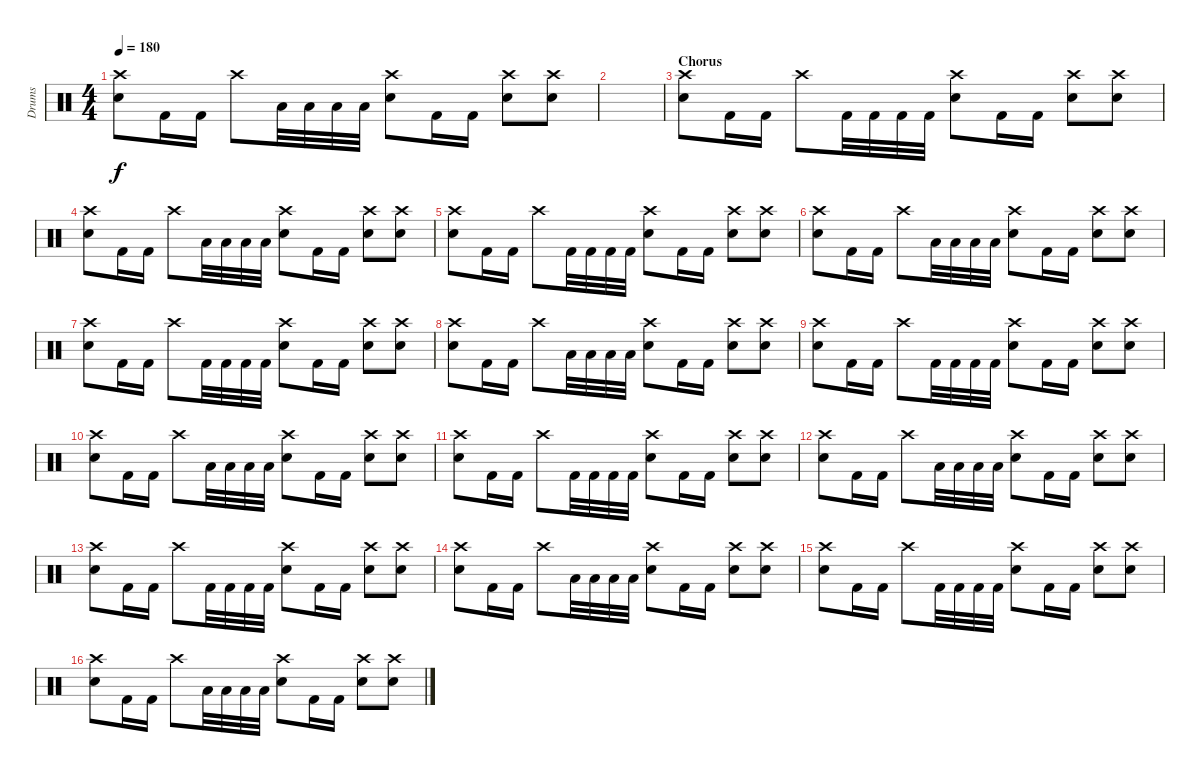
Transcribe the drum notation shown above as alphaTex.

\track ("Drums" "Drums") {instrument percussion}
\staff {score}
\articulation defaults
\ts (4 4)
\tempo 180
\clef neutral
\ks c
("Crash high (hit)" "Electric Snare (hit)").8{dy f} "Kick (hit) 2".16 "Kick (hit) 2".16 "Crash high (hit)".8 "Low Tom (hit)".32 "Low Tom (hit)".32 "Low Tom (hit)".32 "Low Tom (hit)".32 ("Crash high (hit)" "Electric Snare (hit)").8 "Kick (hit) 2".16 "Kick (hit) 2".16 ("Crash high (hit)" "Electric Snare (hit)").8 ("Crash high (hit)" "Electric Snare (hit)").8 |
|
\section ("" "Chorus")
("Crash high (hit)" "Electric Snare (hit)").8 "Kick (hit) 2".16 "Kick (hit) 2".16 "Crash high (hit)".8 "Kick (hit) 2".32 "Kick (hit) 2".32 "Kick (hit) 2".32 "Kick (hit) 2".32 ("Crash high (hit)" "Electric Snare (hit)").8 "Kick (hit) 2".16 "Kick (hit) 2".16 ("Crash high (hit)" "Electric Snare (hit)").8 ("Crash high (hit)" "Electric Snare (hit)").8 |
("Crash high (hit)" "Electric Snare (hit)").8 "Kick (hit) 2".16 "Kick (hit) 2".16 "Crash high (hit)".8 "Low Tom (hit)".32 "Low Tom (hit)".32 "Low Tom (hit)".32 "Low Tom (hit)".32 ("Crash high (hit)" "Electric Snare (hit)").8 "Kick (hit) 2".16 "Kick (hit) 2".16 ("Crash high (hit)" "Electric Snare (hit)").8 ("Crash high (hit)" "Electric Snare (hit)").8 |
("Crash high (hit)" "Electric Snare (hit)").8 "Kick (hit) 2".16 "Kick (hit) 2".16 "Crash high (hit)".8 "Kick (hit) 2".32 "Kick (hit) 2".32 "Kick (hit) 2".32 "Kick (hit) 2".32 ("Crash high (hit)" "Electric Snare (hit)").8 "Kick (hit) 2".16 "Kick (hit) 2".16 ("Crash high (hit)" "Electric Snare (hit)").8 ("Crash high (hit)" "Electric Snare (hit)").8 |
("Crash high (hit)" "Electric Snare (hit)").8 "Kick (hit) 2".16 "Kick (hit) 2".16 "Crash high (hit)".8 "Low Tom (hit)".32 "Low Tom (hit)".32 "Low Tom (hit)".32 "Low Tom (hit)".32 ("Crash high (hit)" "Electric Snare (hit)").8 "Kick (hit) 2".16 "Kick (hit) 2".16 ("Crash high (hit)" "Electric Snare (hit)").8 ("Crash high (hit)" "Electric Snare (hit)").8 |
("Crash high (hit)" "Electric Snare (hit)").8 "Kick (hit) 2".16 "Kick (hit) 2".16 "Crash high (hit)".8 "Kick (hit) 2".32 "Kick (hit) 2".32 "Kick (hit) 2".32 "Kick (hit) 2".32 ("Crash high (hit)" "Electric Snare (hit)").8 "Kick (hit) 2".16 "Kick (hit) 2".16 ("Crash high (hit)" "Electric Snare (hit)").8 ("Crash high (hit)" "Electric Snare (hit)").8 |
("Crash high (hit)" "Electric Snare (hit)").8 "Kick (hit) 2".16 "Kick (hit) 2".16 "Crash high (hit)".8 "Low Tom (hit)".32 "Low Tom (hit)".32 "Low Tom (hit)".32 "Low Tom (hit)".32 ("Crash high (hit)" "Electric Snare (hit)").8 "Kick (hit) 2".16 "Kick (hit) 2".16 ("Crash high (hit)" "Electric Snare (hit)").8 ("Crash high (hit)" "Electric Snare (hit)").8 |
("Crash high (hit)" "Electric Snare (hit)").8 "Kick (hit) 2".16 "Kick (hit) 2".16 "Crash high (hit)".8 "Kick (hit) 2".32 "Kick (hit) 2".32 "Kick (hit) 2".32 "Kick (hit) 2".32 ("Crash high (hit)" "Electric Snare (hit)").8 "Kick (hit) 2".16 "Kick (hit) 2".16 ("Crash high (hit)" "Electric Snare (hit)").8 ("Crash high (hit)" "Electric Snare (hit)").8 |
("Crash high (hit)" "Electric Snare (hit)").8 "Kick (hit) 2".16 "Kick (hit) 2".16 "Crash high (hit)".8 "Low Tom (hit)".32 "Low Tom (hit)".32 "Low Tom (hit)".32 "Low Tom (hit)".32 ("Crash high (hit)" "Electric Snare (hit)").8 "Kick (hit) 2".16 "Kick (hit) 2".16 ("Crash high (hit)" "Electric Snare (hit)").8 ("Crash high (hit)" "Electric Snare (hit)").8 |
("Crash high (hit)" "Electric Snare (hit)").8 "Kick (hit) 2".16 "Kick (hit) 2".16 "Crash high (hit)".8 "Kick (hit) 2".32 "Kick (hit) 2".32 "Kick (hit) 2".32 "Kick (hit) 2".32 ("Crash high (hit)" "Electric Snare (hit)").8 "Kick (hit) 2".16 "Kick (hit) 2".16 ("Crash high (hit)" "Electric Snare (hit)").8 ("Crash high (hit)" "Electric Snare (hit)").8 |
("Crash high (hit)" "Electric Snare (hit)").8 "Kick (hit) 2".16 "Kick (hit) 2".16 "Crash high (hit)".8 "Low Tom (hit)".32 "Low Tom (hit)".32 "Low Tom (hit)".32 "Low Tom (hit)".32 ("Crash high (hit)" "Electric Snare (hit)").8 "Kick (hit) 2".16 "Kick (hit) 2".16 ("Crash high (hit)" "Electric Snare (hit)").8 ("Crash high (hit)" "Electric Snare (hit)").8 |
("Crash high (hit)" "Electric Snare (hit)").8 "Kick (hit) 2".16 "Kick (hit) 2".16 "Crash high (hit)".8 "Kick (hit) 2".32 "Kick (hit) 2".32 "Kick (hit) 2".32 "Kick (hit) 2".32 ("Crash high (hit)" "Electric Snare (hit)").8 "Kick (hit) 2".16 "Kick (hit) 2".16 ("Crash high (hit)" "Electric Snare (hit)").8 ("Crash high (hit)" "Electric Snare (hit)").8 |
("Crash high (hit)" "Electric Snare (hit)").8 "Kick (hit) 2".16 "Kick (hit) 2".16 "Crash high (hit)".8 "Low Tom (hit)".32 "Low Tom (hit)".32 "Low Tom (hit)".32 "Low Tom (hit)".32 ("Crash high (hit)" "Electric Snare (hit)").8 "Kick (hit) 2".16 "Kick (hit) 2".16 ("Crash high (hit)" "Electric Snare (hit)").8 ("Crash high (hit)" "Electric Snare (hit)").8 |
("Crash high (hit)" "Electric Snare (hit)").8 "Kick (hit) 2".16 "Kick (hit) 2".16 "Crash high (hit)".8 "Kick (hit) 2".32 "Kick (hit) 2".32 "Kick (hit) 2".32 "Kick (hit) 2".32 ("Crash high (hit)" "Electric Snare (hit)").8 "Kick (hit) 2".16 "Kick (hit) 2".16 ("Crash high (hit)" "Electric Snare (hit)").8 ("Crash high (hit)" "Electric Snare (hit)").8 |
("Crash high (hit)" "Electric Snare (hit)").8 "Kick (hit) 2".16 "Kick (hit) 2".16 "Crash high (hit)".8 "Low Tom (hit)".32 "Low Tom (hit)".32 "Low Tom (hit)".32 "Low Tom (hit)".32 ("Crash high (hit)" "Electric Snare (hit)").8 "Kick (hit) 2".16 "Kick (hit) 2".16 ("Crash high (hit)" "Electric Snare (hit)").8 ("Crash high (hit)" "Electric Snare (hit)").8
